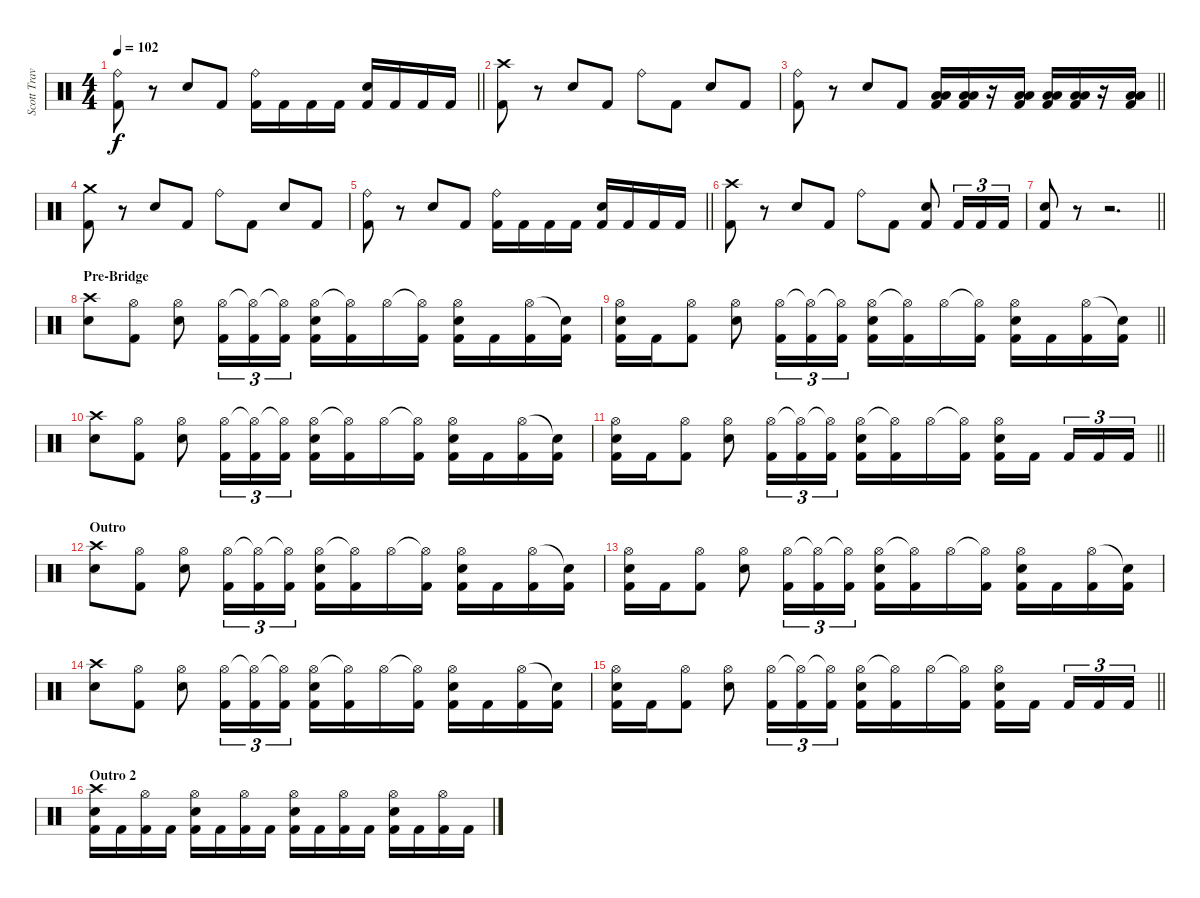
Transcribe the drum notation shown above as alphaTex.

\track ("Scott Travis" "Scott Trav") {instrument percussion}
\staff {score}
\articulation defaults
\ts (4 4)
\tempo 102
\clef neutral
\barLineRight lightlight
\ks c
("Ride (bell)" "Kick (hit) 2").8{dy f} r.8 "Snare (hit) 2".8 "Kick (hit) 2".8 ("Ride (bell)" "Kick (hit) 2").16 "Kick (hit) 2".16 "Kick (hit) 2".16 "Kick (hit) 2".16 ("Snare (hit) 2" "Kick (hit) 2").16 "Kick (hit) 2".16 "Kick (hit) 2".16 "Kick (hit) 2".16 |
("Crash high (hit)" "Kick (hit) 2").8 r.8 "Snare (hit) 2".8 "Kick (hit) 2".8 "Ride (bell)".8 "Kick (hit) 2".8 "Snare (hit) 2".8 "Kick (hit) 2".8 |
\barLineRight lightlight
("Ride (bell)" "Kick (hit) 2").8 r.8 "Snare (hit) 2".8 "Kick (hit) 2".8 ("Low Floor Tom (hit)" "Low Tom (hit)" "Kick (hit) 2").16 ("Low Floor Tom (hit)" "Low Tom (hit)" "Kick (hit) 2").16 r.16 ("Low Floor Tom (hit)" "Low Tom (hit)" "Kick (hit) 2").16 ("Low Floor Tom (hit)" "Low Tom (hit)" "Kick (hit) 2").16 ("Low Floor Tom (hit)" "Low Tom (hit)" "Kick (hit) 2").16 r.16 ("Low Floor Tom (hit)" "Low Tom (hit)" "Kick (hit) 2").16 |
("Crash medium (hit)" "Kick (hit) 2").8 r.8 "Snare (hit) 2".8 "Kick (hit) 2".8 "Ride (bell)".8 "Kick (hit) 2".8 "Snare (hit) 2".8 "Kick (hit) 2".8 |
\barLineRight lightlight
("Ride (bell)" "Kick (hit) 2").8 r.8 "Snare (hit) 2".8 "Kick (hit) 2".8 ("Ride (bell)" "Kick (hit) 2").16 "Kick (hit) 2".16 "Kick (hit) 2".16 "Kick (hit) 2".16 ("Snare (hit) 2" "Kick (hit) 2").16 "Kick (hit) 2".16 "Kick (hit) 2".16 "Kick (hit) 2".16 |
("Crash high (hit)" "Kick (hit) 2").8 r.8 "Snare (hit) 2".8 "Kick (hit) 2".8 "Ride (bell)".8 "Kick (hit) 2".8 ("Snare (hit) 2" "Kick (hit) 2").8 "Kick (hit) 2".16{tu (3 2)} "Kick (hit) 2".16{tu (3 2)} "Kick (hit) 2".16{tu (3 2)} |
\barLineRight lightlight
("Snare (hit) 2" "Kick (hit) 2").8 r.8 r.2{d} |
\section ("" "Pre-Bridge")
("Crash high (hit)" "Snare (hit) 2").8 ("Hi-Hat (open)" "Kick (hit) 2").8 ("Hi-Hat (open)" "Snare (hit) 2").8 ("Hi-Hat (open)" "Kick (hit) 2").16{tu (3 2)} ("Hi-Hat (open)"{t} "Kick (hit) 2").16{tu (3 2)} ("Hi-Hat (open)"{t} "Kick (hit) 2").16{tu (3 2)} ("Hi-Hat (open)" "Snare (hit) 2" "Kick (hit) 2").16 ("Hi-Hat (open)"{t} "Kick (hit) 2").16 "Hi-Hat (open)".16 ("Hi-Hat (open)"{t} "Kick (hit) 2").16 ("Hi-Hat (open)" "Snare (hit) 2" "Kick (hit) 2").16 "Kick (hit) 2".16 ("Hi-Hat (open)" "Kick (hit) 2").16 ("Snare (hit)"{t} "Kick (hit) 2").16 |
\barLineRight lightlight
("Hi-Hat (open)" "Snare (hit) 2" "Kick (hit) 2").16 "Kick (hit) 2".16 ("Hi-Hat (open)" "Kick (hit) 2").8 ("Hi-Hat (open)" "Snare (hit) 2").8 ("Hi-Hat (open)" "Kick (hit) 2").16{tu (3 2)} ("Hi-Hat (open)"{t} "Kick (hit) 2").16{tu (3 2)} ("Hi-Hat (open)"{t} "Kick (hit) 2").16{tu (3 2)} ("Hi-Hat (open)" "Snare (hit) 2" "Kick (hit) 2").16 ("Hi-Hat (open)"{t} "Kick (hit) 2").16 "Hi-Hat (open)".16 ("Hi-Hat (open)"{t} "Kick (hit) 2").16 ("Hi-Hat (open)" "Snare (hit) 2" "Kick (hit) 2").16 "Kick (hit) 2".16 ("Hi-Hat (open)" "Kick (hit) 2").16 ("Snare (hit)"{t} "Kick (hit) 2").16 |
("Crash high (hit)" "Snare (hit) 2").8 ("Hi-Hat (open)" "Kick (hit) 2").8 ("Hi-Hat (open)" "Snare (hit) 2").8 ("Hi-Hat (open)" "Kick (hit) 2").16{tu (3 2)} ("Hi-Hat (open)"{t} "Kick (hit) 2").16{tu (3 2)} ("Hi-Hat (open)"{t} "Kick (hit) 2").16{tu (3 2)} ("Hi-Hat (open)" "Snare (hit) 2" "Kick (hit) 2").16 ("Hi-Hat (open)"{t} "Kick (hit) 2").16 "Hi-Hat (open)".16 ("Hi-Hat (open)"{t} "Kick (hit) 2").16 ("Hi-Hat (open)" "Snare (hit) 2" "Kick (hit) 2").16 "Kick (hit) 2".16 ("Hi-Hat (open)" "Kick (hit) 2").16 ("Snare (hit)"{t} "Kick (hit) 2").16 |
\barLineRight lightlight
("Hi-Hat (open)" "Snare (hit) 2" "Kick (hit) 2").16 "Kick (hit) 2".16 ("Hi-Hat (open)" "Kick (hit) 2").8 ("Hi-Hat (open)" "Snare (hit) 2").8 ("Hi-Hat (open)" "Kick (hit) 2").16{tu (3 2)} ("Hi-Hat (open)"{t} "Kick (hit) 2").16{tu (3 2)} ("Hi-Hat (open)"{t} "Kick (hit) 2").16{tu (3 2)} ("Hi-Hat (open)" "Snare (hit) 2" "Kick (hit) 2").16 ("Hi-Hat (open)"{t} "Kick (hit) 2").16 "Hi-Hat (open)".16 ("Hi-Hat (open)"{t} "Kick (hit) 2").16 ("Hi-Hat (open)" "Snare (hit) 2" "Kick (hit) 2").16 "Kick (hit) 2".16{beam splitsecondary} "Kick (hit) 2".16{tu (3 2)} "Kick (hit) 2".16{tu (3 2)} "Kick (hit) 2".16{tu (3 2)} |
\section ("" "Outro")
("Crash high (hit)" "Snare (hit) 2").8 ("Hi-Hat (open)" "Kick (hit) 2").8 ("Hi-Hat (open)" "Snare (hit) 2").8 ("Hi-Hat (open)" "Kick (hit) 2").16{tu (3 2)} ("Hi-Hat (open)"{t} "Kick (hit) 2").16{tu (3 2)} ("Hi-Hat (open)"{t} "Kick (hit) 2").16{tu (3 2)} ("Hi-Hat (open)" "Snare (hit) 2" "Kick (hit) 2").16 ("Hi-Hat (open)"{t} "Kick (hit) 2").16 "Hi-Hat (open)".16 ("Hi-Hat (open)"{t} "Kick (hit) 2").16 ("Hi-Hat (open)" "Snare (hit) 2" "Kick (hit) 2").16 "Kick (hit) 2".16 ("Hi-Hat (open)" "Kick (hit) 2").16 ("Snare (hit)"{t} "Kick (hit) 2").16 |
("Hi-Hat (open)" "Snare (hit) 2" "Kick (hit) 2").16 "Kick (hit) 2".16 ("Hi-Hat (open)" "Kick (hit) 2").8 ("Hi-Hat (open)" "Snare (hit) 2").8 ("Hi-Hat (open)" "Kick (hit) 2").16{tu (3 2)} ("Hi-Hat (open)"{t} "Kick (hit) 2").16{tu (3 2)} ("Hi-Hat (open)"{t} "Kick (hit) 2").16{tu (3 2)} ("Hi-Hat (open)" "Snare (hit) 2" "Kick (hit) 2").16 ("Hi-Hat (open)"{t} "Kick (hit) 2").16 "Hi-Hat (open)".16 ("Hi-Hat (open)"{t} "Kick (hit) 2").16 ("Hi-Hat (open)" "Snare (hit) 2" "Kick (hit) 2").16 "Kick (hit) 2".16 ("Hi-Hat (open)" "Kick (hit) 2").16 ("Snare (hit)"{t} "Kick (hit) 2").16 |
("Crash high (hit)" "Snare (hit) 2").8 ("Hi-Hat (open)" "Kick (hit) 2").8 ("Hi-Hat (open)" "Snare (hit) 2").8 ("Hi-Hat (open)" "Kick (hit) 2").16{tu (3 2)} ("Hi-Hat (open)"{t} "Kick (hit) 2").16{tu (3 2)} ("Hi-Hat (open)"{t} "Kick (hit) 2").16{tu (3 2)} ("Hi-Hat (open)" "Snare (hit) 2" "Kick (hit) 2").16 ("Hi-Hat (open)"{t} "Kick (hit) 2").16 "Hi-Hat (open)".16 ("Hi-Hat (open)"{t} "Kick (hit) 2").16 ("Hi-Hat (open)" "Snare (hit) 2" "Kick (hit) 2").16 "Kick (hit) 2".16 ("Hi-Hat (open)" "Kick (hit) 2").16 ("Snare (hit)"{t} "Kick (hit) 2").16 |
\barLineRight lightlight
("Hi-Hat (open)" "Snare (hit) 2" "Kick (hit) 2").16 "Kick (hit) 2".16 ("Hi-Hat (open)" "Kick (hit) 2").8 ("Hi-Hat (open)" "Snare (hit) 2").8 ("Hi-Hat (open)" "Kick (hit) 2").16{tu (3 2)} ("Hi-Hat (open)"{t} "Kick (hit) 2").16{tu (3 2)} ("Hi-Hat (open)"{t} "Kick (hit) 2").16{tu (3 2)} ("Hi-Hat (open)" "Snare (hit) 2" "Kick (hit) 2").16 ("Hi-Hat (open)"{t} "Kick (hit) 2").16 "Hi-Hat (open)".16 ("Hi-Hat (open)"{t} "Kick (hit) 2").16 ("Hi-Hat (open)" "Snare (hit) 2" "Kick (hit) 2").16 "Kick (hit) 2".16{beam splitsecondary} "Kick (hit) 2".16{tu (3 2)} "Kick (hit) 2".16{tu (3 2)} "Kick (hit) 2".16{tu (3 2)} |
\section ("" "Outro 2")
("Crash high (hit)" "Snare (hit) 2" "Kick (hit) 2").16 "Kick (hit) 2".16 ("Hi-Hat (open)" "Kick (hit) 2").16 "Kick (hit) 2".16 ("Hi-Hat (open)" "Snare (hit) 2" "Kick (hit) 2").16 "Kick (hit) 2".16 ("Hi-Hat (open)" "Kick (hit) 2").16 "Kick (hit) 2".16 ("Hi-Hat (open)" "Snare (hit) 2" "Kick (hit) 2").16 "Kick (hit) 2".16 ("Hi-Hat (open)" "Kick (hit) 2").16 "Kick (hit) 2".16 ("Hi-Hat (open)" "Snare (hit) 2" "Kick (hit) 2").16 "Kick (hit) 2".16 ("Hi-Hat (open)" "Kick (hit) 2").16 "Kick (hit) 2".16
